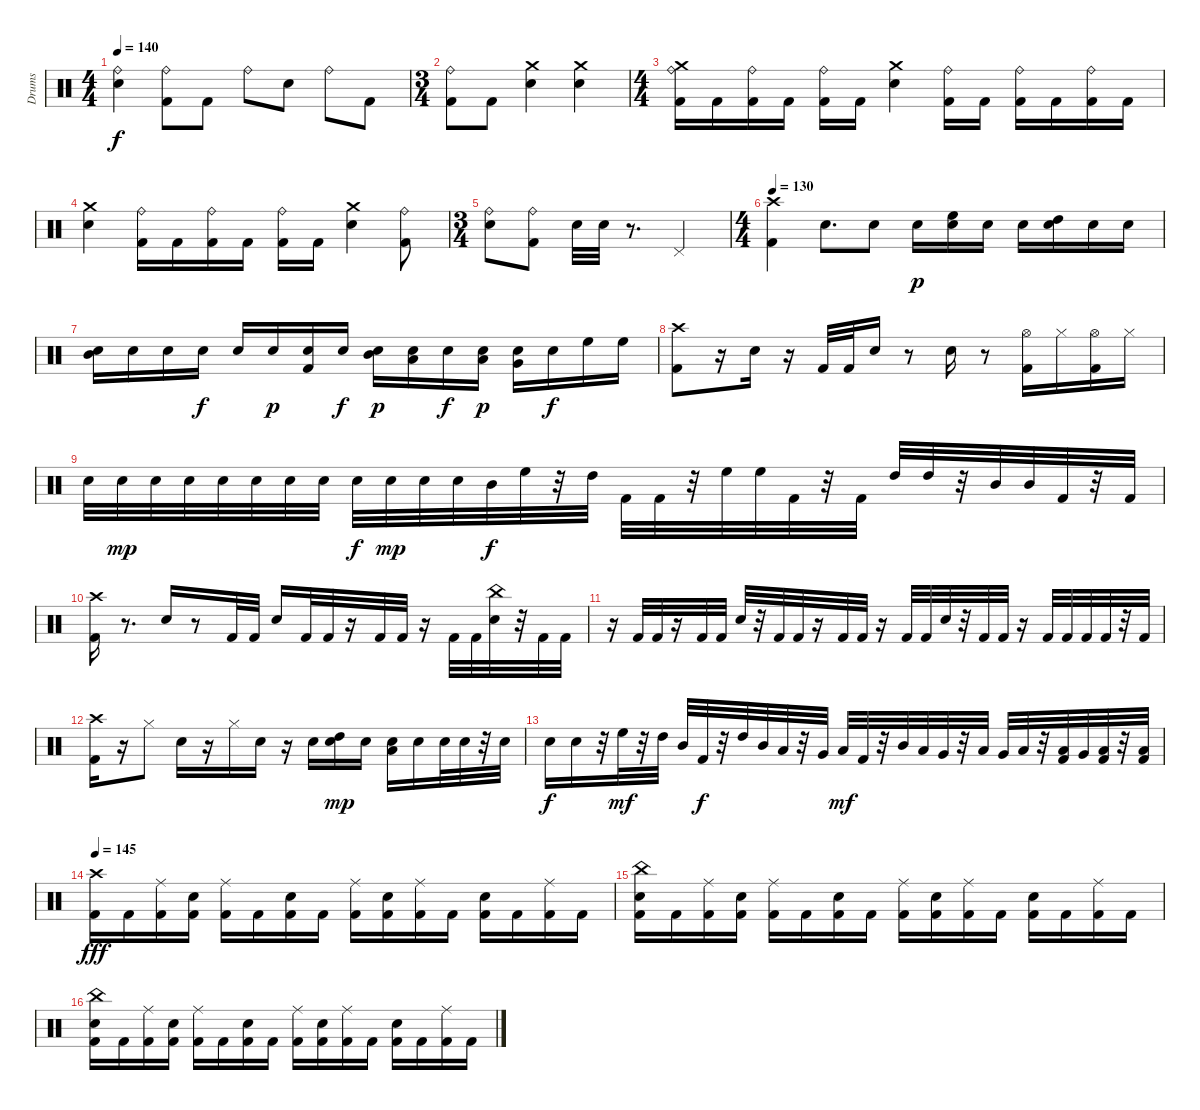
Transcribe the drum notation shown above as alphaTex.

\track ("Drums" "Drums") {instrument percussion}
\staff {score}
\articulation defaults
\ts (4 4)
\tempo 140
\clef neutral
\ks c
("Ride (bell)" "Electric Snare (hit)").4{dy f} ("Ride (bell)" "Kick (hit) 2").8 "Kick (hit) 2".8 "Ride (bell)".8 "Electric Snare (hit)".8 "Ride (bell)".8 "Kick (hit) 2".8 |
\ts (3 4)
("Kick (hit) 2" "Ride (bell)").8 "Kick (hit) 2".8 ("Electric Snare (hit)" "Crash medium (hit)").4 ("Crash medium (hit)" "Electric Snare (hit)").4 |
\ts (4 4)
("Crash medium (hit)" "Kick (hit) 2" "Ride (bell)").16 "Kick (hit) 2".16 ("Kick (hit) 2" "Ride (bell)").16 "Kick (hit) 2".16 ("Kick (hit) 2" "Ride (bell)").16 "Kick (hit) 2".16 ("Electric Snare (hit)" "Crash medium (hit)").4 ("Ride (bell)" "Kick (hit) 2").16 "Kick (hit) 2".16 ("Kick (hit) 2" "Ride (bell)").16 "Kick (hit) 2".16 ("Kick (hit) 2" "Ride (bell)").16 "Kick (hit) 2".16 |
("Electric Snare (hit)" "Crash medium (hit)").4 ("Kick (hit) 2" "Ride (bell)").16 "Kick (hit) 2".16 ("Kick (hit) 2" "Ride (bell)").16 "Kick (hit) 2".16 ("Kick (hit) 2" "Ride (bell)").16 "Kick (hit) 2".16 ("Electric Snare (hit)" "Crash medium (hit)").4 ("Kick (hit) 2" "Ride (bell)").8 |
\ts (3 4)
("Electric Snare (hit)" "Ride (bell)").8 ("Kick (hit) 2" "Ride (bell)").8 "Electric Snare (hit)".32 "Electric Snare (hit)".32 r.8{d} "Pedal Hi-Hat (hit)".4 |
\ts (4 4)
\tempo 130
("Crash high (hit)" "Kick (hit) 2").4 "Electric Snare (hit)".8{d} "Electric Snare (hit)".8 "Electric Snare (hit)".16{dy p} ("High Floor Tom (hit)" "Electric Snare (hit)").16 "Electric Snare (hit)".16 "Electric Snare (hit)".16 ("High Tom (hit)" "Electric Snare (hit)").16 "Electric Snare (hit)".16 "Electric Snare (hit)".16 |
("Mid Tom (hit)" "Electric Snare (hit)").16 "Electric Snare (hit)".16 "Electric Snare (hit)".16 "Electric Snare (hit)".16{dy f} "Electric Snare (hit)".16 "Electric Snare (hit)".16{dy p} ("Kick (hit) 2" "Electric Snare (hit)").16 "Electric Snare (hit)".16{dy f} ("Mid Tom (hit)" "Electric Snare (hit)").16{dy p} ("Low Tom (hit)" "Electric Snare (hit)").16 "Electric Snare (hit)".16{dy f} ("Low Tom (hit)" "Electric Snare (hit)").16{dy p} ("Very Low Tom (hit)" "Electric Snare (hit)").16 "Electric Snare (hit)".16{dy f} "High Floor Tom (hit)".16 "High Floor Tom (hit)".16 |
("Crash high (hit)" "Kick (hit) 2").8 r.16 "Electric Snare (hit)".16 r.16 "Kick (hit) 2".32 "Kick (hit) 2".32 "Electric Snare (hit)".16 r.8 "Electric Snare (hit)".16 r.8 ("Kick (hit) 2" "Hi-Hat (open)").16 "Hi-Hat (closed)".16 ("Kick (hit) 2" "Hi-Hat (open)").16 "Hi-Hat (closed)".16 |
"Electric Snare (hit)".32 "Electric Snare (hit)".32{dy mp} "Electric Snare (hit)".32 "Electric Snare (hit)".32 "Electric Snare (hit)".32 "Electric Snare (hit)".32 "Electric Snare (hit)".32 "Electric Snare (hit)".32 "Electric Snare (hit)".32{dy f} "Electric Snare (hit)".32{dy mp} "Electric Snare (hit)".32 "Electric Snare (hit)".32 "Mid Tom (hit)".32{dy f} "High Floor Tom (hit)".32 r.32 "High Tom (hit)".32 "Kick (hit) 2".32 "Kick (hit) 2".32 r.32 "High Floor Tom (hit)".32 "High Floor Tom (hit)".32 "Kick (hit) 2".32 r.32 "Kick (hit) 2".32 "High Tom (hit)".32 "High Tom (hit)".32 r.32 "Mid Tom (hit)".32 "Mid Tom (hit)".32 "Kick (hit) 2".32 r.32 "Kick (hit) 2".32 |
("Crash high (hit)" "Kick (hit) 2").16 r.8{d} "Electric Snare (hit)".16 r.8 "Kick (hit) 2".32 "Kick (hit) 2".32 "Electric Snare (hit)".16 "Kick (hit) 2".32 "Kick (hit) 2".32 r.16 "Kick (hit) 2".32 "Kick (hit) 2".32 r.16 "Kick (hit) 2".32 "Kick (hit) 2".32 ("China (hit)" "Electric Snare (hit)").32 r.32 "Kick (hit) 2".32 "Kick (hit) 2".32 |
r.16 "Kick (hit) 2".32 "Kick (hit) 2".32 r.16 "Kick (hit) 2".32 "Kick (hit) 2".32 "Electric Snare (hit)".32 r.32 "Kick (hit) 2".32 "Kick (hit) 2".32 r.16 "Kick (hit) 2".32 "Kick (hit) 2".32 r.16 "Kick (hit) 2".32 "Kick (hit) 2".32 "Electric Snare (hit)".32 r.32 "Kick (hit) 2".32 "Kick (hit) 2".32 r.16 "Kick (hit) 2".32 "Kick (hit) 2".32 "Kick (hit) 2".32 "Kick (hit) 2".32 r.32 "Kick (hit) 2".32 |
("Crash high (hit)" "Kick (hit) 2").16 r.16 "Hi-Hat (closed)".8 "Electric Snare (hit)".16 r.16 "Hi-Hat (closed)".16 "Electric Snare (hit)".16 r.16 "Electric Snare (hit)".16 ("High Tom (hit)" "Electric Snare (hit)").16{dy mp} "Electric Snare (hit)".16 ("Low Tom (hit)" "Electric Snare (hit)").16 "Electric Snare (hit)".16 "Electric Snare (hit)".32 "Electric Snare (hit)".32 r.32 "Electric Snare (hit)".32 |
"Electric Snare (hit)".16{dy f} "Electric Snare (hit)".16 r.32 "High Floor Tom (hit)".32{dy mf} r.32 "High Tom (hit)".32 "Mid Tom (hit)".32 "Kick (hit) 2".32{dy f} r.32 "High Tom (hit)".32 "Mid Tom (hit)".32 "Low Tom (hit)".32 r.32 "Very Low Tom (hit)".32 "Low Floor Tom (hit)".32{dy mf} "Kick (hit) 2".32 r.32 "Mid Tom (hit)".32 "Low Tom (hit)".32 "Very Low Tom (hit)".32 r.32 "Low Floor Tom (hit)".32 "Very Low Tom (hit)".32 "Low Floor Tom (hit)".32 r.32 ("Kick (hit) 2" "Low Floor Tom (hit)").32 "Very Low Tom (hit)".32 ("Kick (hit) 2" "Low Floor Tom (hit)").32 r.32 ("Kick (hit) 2" "Low Floor Tom (hit)").32 |
\tempo 145
("Kick (hit) 2" "Crash high (hit)").16{dy fff} "Kick (hit) 2".16 ("Kick (hit) 2" "Ride (middle)").16 ("Kick (hit) 2" "Electric Snare (hit)").16 ("Kick (hit) 2" "Ride (middle)").16 "Kick (hit) 2".16 ("Kick (hit) 2" "Electric Snare (hit)").16 "Kick (hit) 2".16 ("Kick (hit) 2" "Ride (middle)").16 ("Kick (hit) 2" "Electric Snare (hit)").16 ("Kick (hit) 2" "Ride (middle)").16 "Kick (hit) 2".16 ("Kick (hit) 2" "Electric Snare (hit)").16 "Kick (hit) 2".16 ("Kick (hit) 2" "Ride (middle)").16 "Kick (hit) 2".16 |
("Kick (hit) 2" "Electric Snare (hit)" "China (hit)").16 "Kick (hit) 2".16 ("Kick (hit) 2" "Ride (middle)").16 ("Kick (hit) 2" "Electric Snare (hit)").16 ("Kick (hit) 2" "Ride (middle)").16 "Kick (hit) 2".16 ("Kick (hit) 2" "Electric Snare (hit)").16 "Kick (hit) 2".16 ("Kick (hit) 2" "Ride (middle)").16 ("Kick (hit) 2" "Electric Snare (hit)").16 ("Kick (hit) 2" "Ride (middle)").16 "Kick (hit) 2".16 ("Kick (hit) 2" "Electric Snare (hit)").16 "Kick (hit) 2".16 ("Kick (hit) 2" "Ride (middle)").16 "Kick (hit) 2".16 |
("Kick (hit) 2" "Electric Snare (hit)" "China (hit)").16 "Kick (hit) 2".16 ("Kick (hit) 2" "Ride (middle)").16 ("Kick (hit) 2" "Electric Snare (hit)").16 ("Kick (hit) 2" "Ride (middle)").16 "Kick (hit) 2".16 ("Kick (hit) 2" "Electric Snare (hit)").16 "Kick (hit) 2".16 ("Kick (hit) 2" "Ride (middle)").16 ("Kick (hit) 2" "Electric Snare (hit)").16 ("Kick (hit) 2" "Ride (middle)").16 "Kick (hit) 2".16 ("Kick (hit) 2" "Electric Snare (hit)").16 "Kick (hit) 2".16 ("Kick (hit) 2" "Ride (middle)").16 "Kick (hit) 2".16
